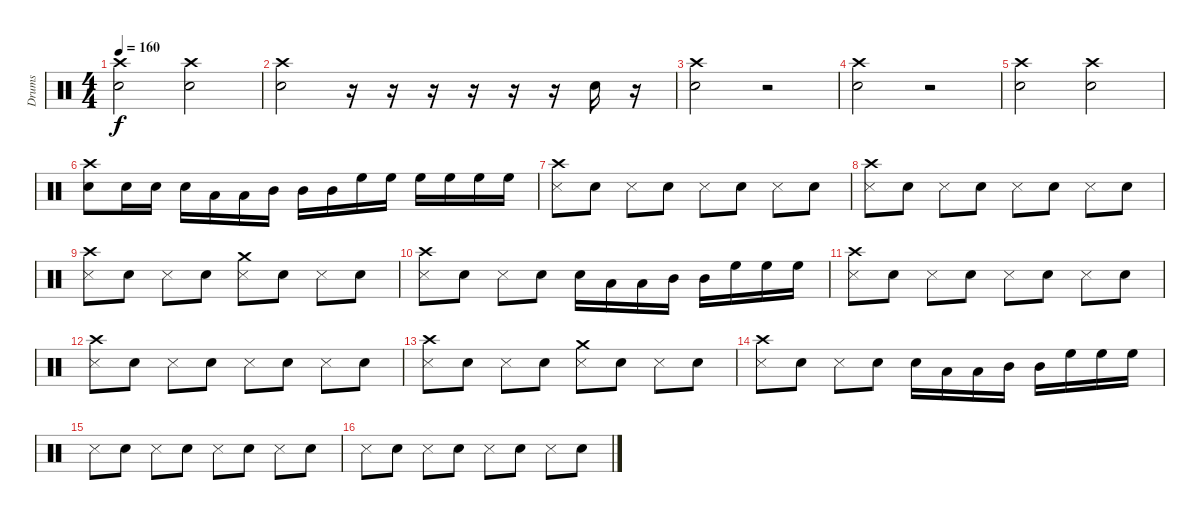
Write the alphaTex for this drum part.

\track ("Drums " "Drums ") {instrument percussion}
\staff {score}
\articulation defaults
\ts (4 4)
\tempo 160
\clef neutral
\ks c
("Crash high (hit)" "Snare (hit) 2").2{dy f} ("Crash high (hit)" "Snare (hit) 2").2 |
("Crash high (hit)" "Snare (hit) 2").2 r.16 r.16 r.16 r.16 r.16 r.16 "Snare (hit) 2".16 r.16 |
("Crash high (hit)" "Snare (hit) 2").2 r.2 |
("Crash high (hit)" "Snare (hit) 2").2 r.2 |
("Crash high (hit)" "Snare (hit) 2").2 ("Crash high (hit)" "Snare (hit) 2").2 |
("Crash high (hit)" "Electric Snare (hit)").8 "Electric Snare (hit)".16 "Electric Snare (hit)".16 "Electric Snare (hit)".16 "Low Tom (hit)".16 "Low Tom (hit)".16 "Mid Tom (hit)".16 "Mid Tom (hit)".16 "Mid Tom (hit)".16 "High Floor Tom (hit)".16 "High Floor Tom (hit)".16 "High Floor Tom (hit)".16 "High Floor Tom (hit)".16 "High Floor Tom (hit)".16 "High Floor Tom (hit)".16 |
("Crash high (hit)" "Metronome (hit)").8 "Snare (hit) 2".8 "Metronome (hit)".8 "Snare (hit) 2".8 "Metronome (hit)".8 "Snare (hit) 2".8 "Metronome (hit)".8 "Snare (hit) 2".8 |
("Crash high (hit)" "Metronome (hit)").8 "Snare (hit) 2".8 "Metronome (hit)".8 "Snare (hit) 2".8 "Metronome (hit)".8 "Snare (hit) 2".8 "Metronome (hit)".8 "Snare (hit) 2".8 |
("Crash high (hit)" "Metronome (hit)").8 "Snare (hit) 2".8 "Metronome (hit)".8 "Snare (hit) 2".8 ("Crash medium (hit)" "Metronome (hit)").8 "Snare (hit) 2".8 "Metronome (hit)".8 "Snare (hit) 2".8 |
("Crash high (hit)" "Metronome (hit)").8 "Snare (hit) 2".8 "Metronome (hit)".8 "Snare (hit) 2".8 "Electric Snare (hit)".16 "Low Tom (hit)".16 "Low Tom (hit)".16 "Mid Tom (hit)".16 "Mid Tom (hit)".16 "High Floor Tom (hit)".16 "High Floor Tom (hit)".16 "High Floor Tom (hit)".16 |
("Crash high (hit)" "Metronome (hit)").8 "Snare (hit) 2".8 "Metronome (hit)".8 "Snare (hit) 2".8 "Metronome (hit)".8 "Snare (hit) 2".8 "Metronome (hit)".8 "Snare (hit) 2".8 |
("Crash high (hit)" "Metronome (hit)").8 "Snare (hit) 2".8 "Metronome (hit)".8 "Snare (hit) 2".8 "Metronome (hit)".8 "Snare (hit) 2".8 "Metronome (hit)".8 "Snare (hit) 2".8 |
("Crash high (hit)" "Metronome (hit)").8 "Snare (hit) 2".8 "Metronome (hit)".8 "Snare (hit) 2".8 ("Crash medium (hit)" "Metronome (hit)").8 "Snare (hit) 2".8 "Metronome (hit)".8 "Snare (hit) 2".8 |
("Crash high (hit)" "Metronome (hit)").8 "Snare (hit) 2".8 "Metronome (hit)".8 "Snare (hit) 2".8 "Electric Snare (hit)".16 "Low Tom (hit)".16 "Low Tom (hit)".16 "Mid Tom (hit)".16 "Mid Tom (hit)".16 "High Floor Tom (hit)".16 "High Floor Tom (hit)".16 "High Floor Tom (hit)".16 |
"Metronome (hit)".8 "Snare (hit) 2".8 "Metronome (hit)".8 "Snare (hit) 2".8 "Metronome (hit)".8 "Snare (hit) 2".8 "Metronome (hit)".8 "Snare (hit) 2".8 |
"Metronome (hit)".8 "Snare (hit) 2".8 "Metronome (hit)".8 "Snare (hit) 2".8 "Metronome (hit)".8 "Snare (hit) 2".8 "Metronome (hit)".8 "Snare (hit) 2".8
